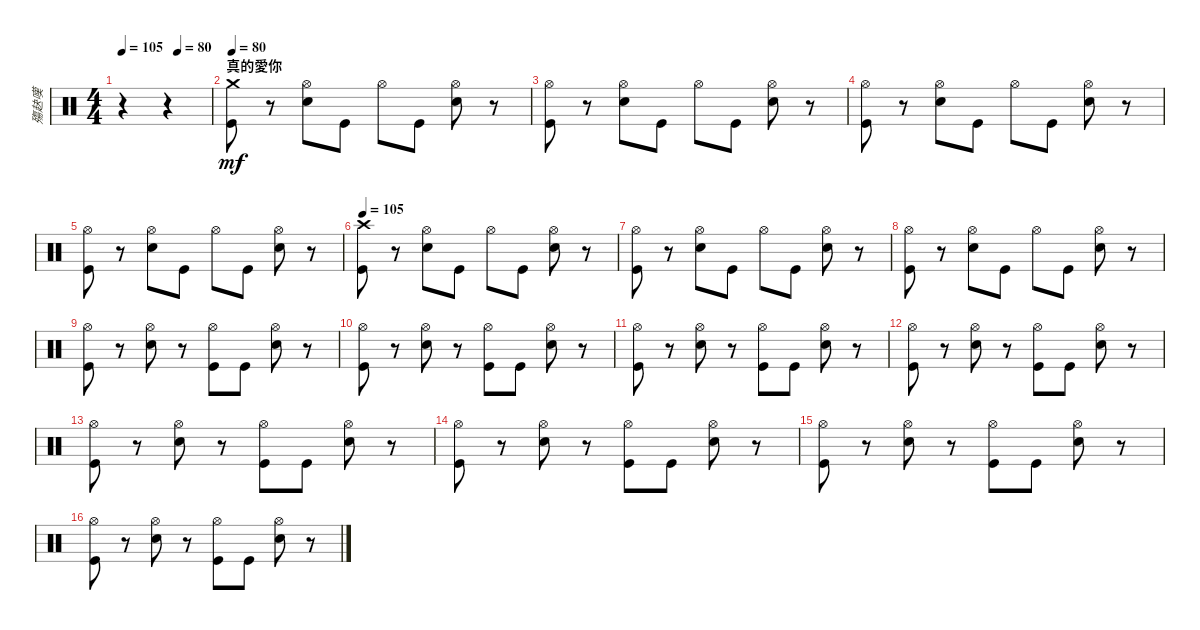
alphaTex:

\track ("殤赽嘆" "殤赽嘆") {instrument percussion}
\staff {score}
\articulation defaults
\ts (4 4)
\tempo 105
\tempo (80 0.625)
\tempo 105
\clef neutral
\ks c
r.4{dy mf} r.4 |
\section ("" "真的愛你")
\tempo 80
("Crash medium (hit)" "Kick (hit)").8 r.8 ("Hi-Hat (open)" "Snare (hit) 2").8 "Kick (hit)".8 "Hi-Hat (open)".8 "Kick (hit)".8 ("Hi-Hat (open)" "Snare (hit) 2").8 r.8 |
("Hi-Hat (open)" "Kick (hit)").8 r.8 ("Hi-Hat (open)" "Snare (hit) 2").8 "Kick (hit)".8 "Hi-Hat (open)".8 "Kick (hit)".8 ("Hi-Hat (open)" "Snare (hit) 2").8 r.8 |
("Hi-Hat (open)" "Kick (hit)").8 r.8 ("Hi-Hat (open)" "Snare (hit) 2").8 "Kick (hit)".8 "Hi-Hat (open)".8 "Kick (hit)".8 ("Hi-Hat (open)" "Snare (hit) 2").8 r.8 |
("Hi-Hat (open)" "Kick (hit)").8 r.8 ("Hi-Hat (open)" "Snare (hit) 2").8 "Kick (hit)".8 "Hi-Hat (open)".8 "Kick (hit)".8 ("Hi-Hat (open)" "Snare (hit) 2").8 r.8 |
\tempo 105
("Crash high (hit)" "Kick (hit)").8 r.8 ("Hi-Hat (open)" "Snare (hit) 2").8 "Kick (hit)".8 "Hi-Hat (open)".8 "Kick (hit)".8 ("Hi-Hat (open)" "Snare (hit) 2").8 r.8 |
("Hi-Hat (open)" "Kick (hit)").8 r.8 ("Hi-Hat (open)" "Snare (hit) 2").8 "Kick (hit)".8 "Hi-Hat (open)".8 "Kick (hit)".8 ("Hi-Hat (open)" "Snare (hit) 2").8 r.8 |
("Hi-Hat (open)" "Kick (hit)").8 r.8 ("Hi-Hat (open)" "Snare (hit) 2").8 "Kick (hit)".8 "Hi-Hat (open)".8 "Kick (hit)".8 ("Hi-Hat (open)" "Snare (hit) 2").8 r.8 |
("Hi-Hat (open)" "Kick (hit)").8 r.8 ("Hi-Hat (open)" "Snare (hit) 2").8 r.8 ("Hi-Hat (open)" "Kick (hit)").8 "Kick (hit)".8 ("Hi-Hat (open)" "Snare (hit) 2").8 r.8 |
("Hi-Hat (open)" "Kick (hit)").8 r.8 ("Hi-Hat (open)" "Snare (hit) 2").8 r.8 ("Hi-Hat (open)" "Kick (hit)").8 "Kick (hit)".8 ("Hi-Hat (open)" "Snare (hit) 2").8 r.8 |
("Hi-Hat (open)" "Kick (hit)").8 r.8 ("Hi-Hat (open)" "Snare (hit) 2").8 r.8 ("Hi-Hat (open)" "Kick (hit)").8 "Kick (hit)".8 ("Hi-Hat (open)" "Snare (hit) 2").8 r.8 |
("Hi-Hat (open)" "Kick (hit)").8 r.8 ("Hi-Hat (open)" "Snare (hit) 2").8 r.8 ("Hi-Hat (open)" "Kick (hit)").8 "Kick (hit)".8 ("Hi-Hat (open)" "Snare (hit) 2").8 r.8 |
("Hi-Hat (open)" "Kick (hit)").8 r.8 ("Hi-Hat (open)" "Snare (hit) 2").8 r.8 ("Hi-Hat (open)" "Kick (hit)").8 "Kick (hit)".8 ("Hi-Hat (open)" "Snare (hit) 2").8 r.8 |
("Hi-Hat (open)" "Kick (hit)").8 r.8 ("Hi-Hat (open)" "Snare (hit) 2").8 r.8 ("Hi-Hat (open)" "Kick (hit)").8 "Kick (hit)".8 ("Hi-Hat (open)" "Snare (hit) 2").8 r.8 |
("Hi-Hat (open)" "Kick (hit)").8 r.8 ("Hi-Hat (open)" "Snare (hit) 2").8 r.8 ("Hi-Hat (open)" "Kick (hit)").8 "Kick (hit)".8 ("Hi-Hat (open)" "Snare (hit) 2").8 r.8 |
("Hi-Hat (open)" "Kick (hit)").8 r.8 ("Hi-Hat (open)" "Snare (hit) 2").8 r.8 ("Hi-Hat (open)" "Kick (hit)").8 "Kick (hit)".8 ("Hi-Hat (open)" "Snare (hit) 2").8 r.8
